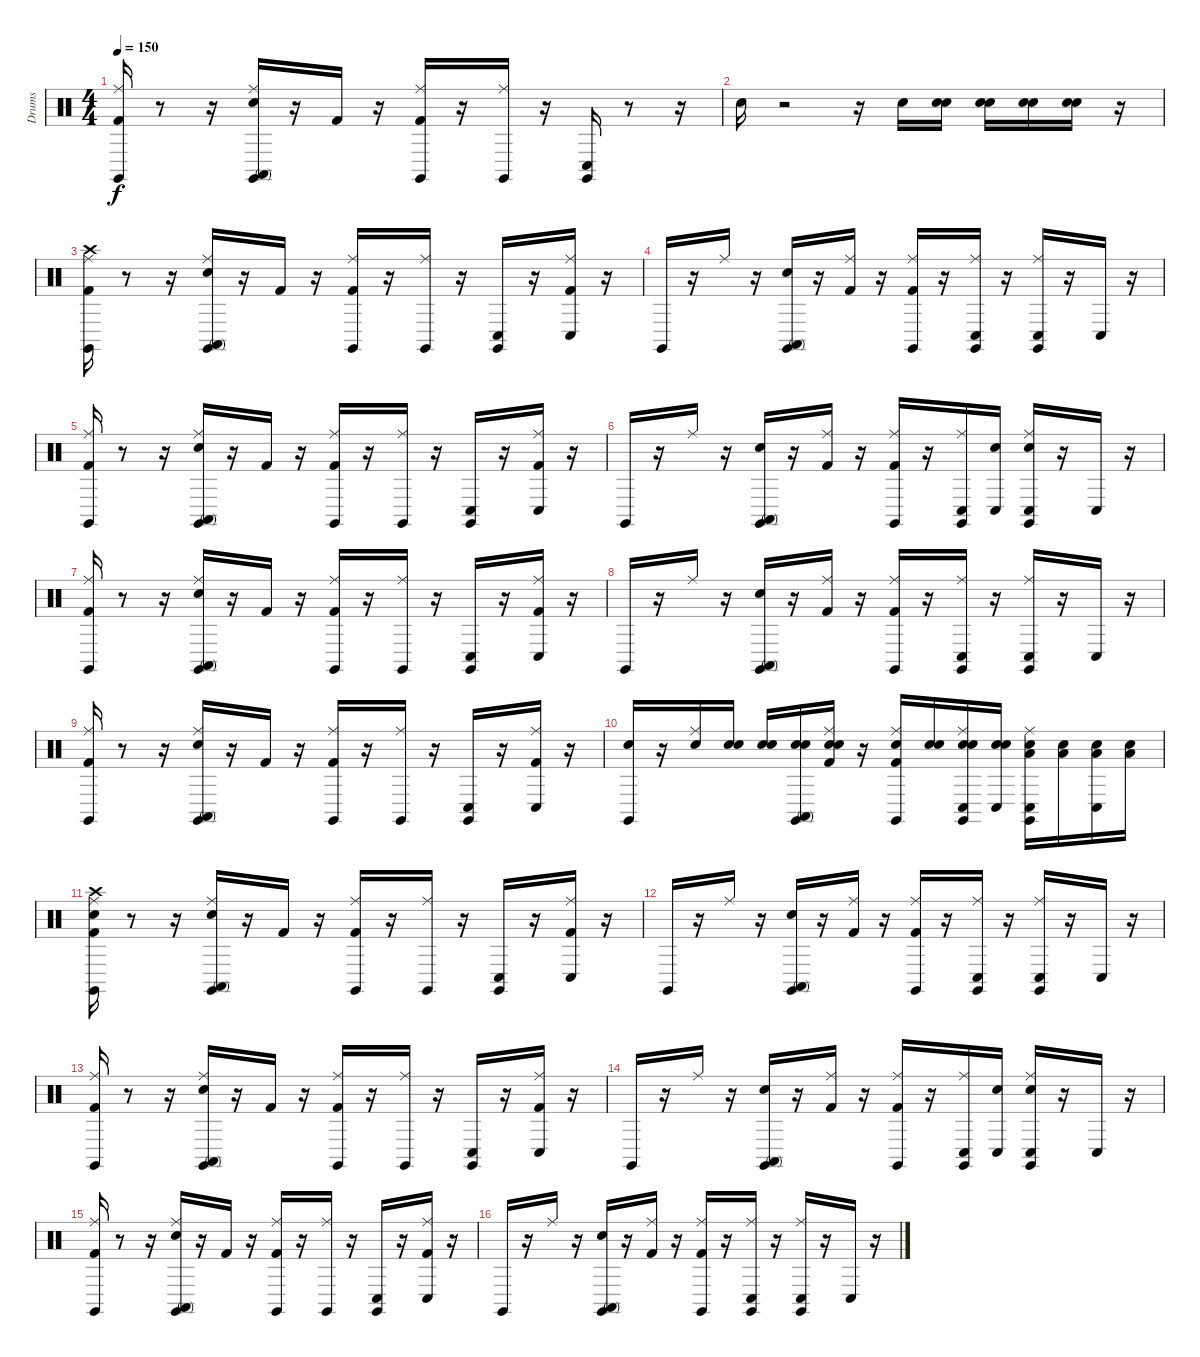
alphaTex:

\track ("Drums" "Drums") {instrument percussion}
\staff {score}
\articulation defaults
\ts (4 4)
\tempo 150
\clef neutral
\ks c
("Kick (hit) 2" "Ride (middle)" "Claves (hit)").16{dy f} r.8 r.16 ("Snare (hit) 2" "Ride (middle)" "Conga high (mute)" "Claves (hit)").16 r.16 "Kick (hit) 2".16 r.16 ("Kick (hit) 2" "Ride (middle)" "Claves (hit)").16 r.16 ("Ride (middle)" "Claves (hit)").16 r.16 ("Conga low (hit)" "Claves (hit)").16 r.8 r.16 |
"Snare (hit) 2".16 r.2 r.16 "Snare (hit) 2".16 ("Snare (hit)" "Snare (hit) 2").16 ("Snare (hit)" "Snare (hit) 2").16 ("Snare (hit)" "Snare (hit) 2").16 ("Snare (hit)" "Snare (hit) 2").16 r.16 |
("Kick (hit) 2" "Crash high (hit)" "Ride (middle)" "Claves (hit)").16 r.8 r.16 ("Snare (hit) 2" "Ride (middle)" "Conga high (mute)" "Claves (hit)").16 r.16 "Kick (hit) 2".16 r.16 ("Kick (hit) 2" "Ride (middle)" "Claves (hit)").16 r.16 ("Ride (middle)" "Claves (hit)").16 r.16 ("Conga low (hit)" "Claves (hit)").16 r.16 ("Kick (hit) 2" "Ride (middle)" "Conga low (hit)").16 r.16 |
"Claves (hit)".16 r.16 "Ride (middle)".16 r.16 ("Snare (hit) 2" "Conga high (mute)" "Claves (hit)").16 r.16 ("Kick (hit) 2" "Ride (middle)").16 r.16 ("Kick (hit) 2" "Ride (middle)" "Claves (hit)").16 r.16 ("Ride (middle)" "Conga low (hit)" "Claves (hit)").16 r.16 ("Ride (middle)" "Conga low (hit)" "Claves (hit)").16 r.16 "Conga low (hit)".16 r.16 |
("Kick (hit) 2" "Ride (middle)" "Claves (hit)").16 r.8 r.16 ("Snare (hit) 2" "Ride (middle)" "Conga high (mute)" "Claves (hit)").16 r.16 "Kick (hit) 2".16 r.16 ("Kick (hit) 2" "Ride (middle)" "Claves (hit)").16 r.16 ("Ride (middle)" "Claves (hit)").16 r.16 ("Conga low (hit)" "Claves (hit)").16 r.16 ("Kick (hit) 2" "Ride (middle)" "Conga low (hit)").16 r.16 |
"Claves (hit)".16 r.16 "Ride (middle)".16 r.16 ("Snare (hit) 2" "Conga high (mute)" "Claves (hit)").16 r.16 ("Kick (hit) 2" "Ride (middle)").16 r.16 ("Kick (hit) 2" "Ride (middle)" "Claves (hit)").16 r.16 ("Ride (middle)" "Conga low (hit)" "Claves (hit)").16 ("Snare (hit)" "Conga low (hit)").16 ("Snare (hit)" "Ride (middle)" "Conga low (hit)" "Claves (hit)").16 r.16 "Conga low (hit)".16 r.16 |
("Kick (hit) 2" "Ride (middle)" "Claves (hit)").16 r.8 r.16 ("Snare (hit) 2" "Ride (middle)" "Conga high (mute)" "Claves (hit)").16 r.16 "Kick (hit) 2".16 r.16 ("Kick (hit) 2" "Ride (middle)" "Claves (hit)").16 r.16 ("Ride (middle)" "Claves (hit)").16 r.16 ("Conga low (hit)" "Claves (hit)").16 r.16 ("Kick (hit) 2" "Ride (middle)" "Conga low (hit)").16 r.16 |
"Claves (hit)".16 r.16 "Ride (middle)".16 r.16 ("Snare (hit) 2" "Conga high (mute)" "Claves (hit)").16 r.16 ("Kick (hit) 2" "Ride (middle)").16 r.16 ("Kick (hit) 2" "Ride (middle)" "Claves (hit)").16 r.16 ("Ride (middle)" "Conga low (hit)" "Claves (hit)").16 r.16 ("Ride (middle)" "Conga low (hit)" "Claves (hit)").16 r.16 "Conga low (hit)".16 r.16 |
("Kick (hit) 2" "Ride (middle)" "Claves (hit)").16 r.8 r.16 ("Snare (hit) 2" "Ride (middle)" "Conga high (mute)" "Claves (hit)").16 r.16 "Kick (hit) 2".16 r.16 ("Kick (hit) 2" "Ride (middle)" "Claves (hit)").16 r.16 ("Ride (middle)" "Claves (hit)").16 r.16 ("Conga low (hit)" "Claves (hit)").16 r.16 ("Kick (hit) 2" "Ride (middle)" "Conga low (hit)").16 r.16 |
("Snare (hit) 2" "Claves (hit)").16 r.16 ("Ride (middle)" "Snare (hit) 2").16 ("Snare (hit)" "Snare (hit) 2").16 ("Snare (hit)" "Snare (hit) 2").16 ("Snare (hit)" "Snare (hit) 2" "Conga high (mute)" "Claves (hit)").16 ("Snare (hit)" "Snare (hit) 2" "Kick (hit) 2" "Ride (middle)").16 r.16 ("Kick (hit) 2" "Snare (hit) 2" "Ride (middle)" "Claves (hit)").16 ("Snare (hit)" "Snare (hit) 2").16 ("Snare (hit)" "Snare (hit) 2" "Ride (middle)" "Conga low (hit)" "Claves (hit)").16 ("Snare (hit)" "Snare (hit) 2" "Conga low (hit)").16 ("Snare (hit)" "Low Tom (hit)" "Ride (middle)" "Conga low (hit)" "Claves (hit)").16 ("Snare (hit)" "Low Tom (hit)").16 ("Snare (hit)" "Low Floor Tom (hit)" "Conga low (hit)").16 ("Snare (hit)" "Low Floor Tom (hit)").16 |
("Snare (hit)" "Kick (hit) 2" "Crash high (hit)" "Ride (middle)" "Claves (hit)").16 r.8 r.16 ("Snare (hit) 2" "Ride (middle)" "Conga high (mute)" "Claves (hit)").16 r.16 "Kick (hit) 2".16 r.16 ("Kick (hit) 2" "Ride (middle)" "Claves (hit)").16 r.16 ("Ride (middle)" "Claves (hit)").16 r.16 ("Conga low (hit)" "Claves (hit)").16 r.16 ("Kick (hit) 2" "Ride (middle)" "Conga low (hit)").16 r.16 |
"Claves (hit)".16 r.16 "Ride (middle)".16 r.16 ("Snare (hit) 2" "Conga high (mute)" "Claves (hit)").16 r.16 ("Kick (hit) 2" "Ride (middle)").16 r.16 ("Kick (hit) 2" "Ride (middle)" "Claves (hit)").16 r.16 ("Ride (middle)" "Conga low (hit)" "Claves (hit)").16 r.16 ("Ride (middle)" "Conga low (hit)" "Claves (hit)").16 r.16 "Conga low (hit)".16 r.16 |
("Kick (hit) 2" "Ride (middle)" "Claves (hit)").16 r.8 r.16 ("Snare (hit) 2" "Ride (middle)" "Conga high (mute)" "Claves (hit)").16 r.16 "Kick (hit) 2".16 r.16 ("Kick (hit) 2" "Ride (middle)" "Claves (hit)").16 r.16 ("Ride (middle)" "Claves (hit)").16 r.16 ("Conga low (hit)" "Claves (hit)").16 r.16 ("Kick (hit) 2" "Ride (middle)" "Conga low (hit)").16 r.16 |
"Claves (hit)".16 r.16 "Ride (middle)".16 r.16 ("Snare (hit) 2" "Conga high (mute)" "Claves (hit)").16 r.16 ("Kick (hit) 2" "Ride (middle)").16 r.16 ("Kick (hit) 2" "Ride (middle)" "Claves (hit)").16 r.16 ("Ride (middle)" "Conga low (hit)" "Claves (hit)").16 ("Snare (hit)" "Conga low (hit)").16 ("Snare (hit)" "Ride (middle)" "Conga low (hit)" "Claves (hit)").16 r.16 "Conga low (hit)".16 r.16 |
("Kick (hit) 2" "Ride (middle)" "Claves (hit)").16 r.8 r.16 ("Snare (hit) 2" "Ride (middle)" "Conga high (mute)" "Claves (hit)").16 r.16 "Kick (hit) 2".16 r.16 ("Kick (hit) 2" "Ride (middle)" "Claves (hit)").16 r.16 ("Ride (middle)" "Claves (hit)").16 r.16 ("Conga low (hit)" "Claves (hit)").16 r.16 ("Kick (hit) 2" "Ride (middle)" "Conga low (hit)").16 r.16 |
"Claves (hit)".16 r.16 "Ride (middle)".16 r.16 ("Snare (hit) 2" "Conga high (mute)" "Claves (hit)").16 r.16 ("Kick (hit) 2" "Ride (middle)").16 r.16 ("Kick (hit) 2" "Ride (middle)" "Claves (hit)").16 r.16 ("Ride (middle)" "Conga low (hit)" "Claves (hit)").16 r.16 ("Ride (middle)" "Conga low (hit)" "Claves (hit)").16 r.16 "Conga low (hit)".16 r.16
